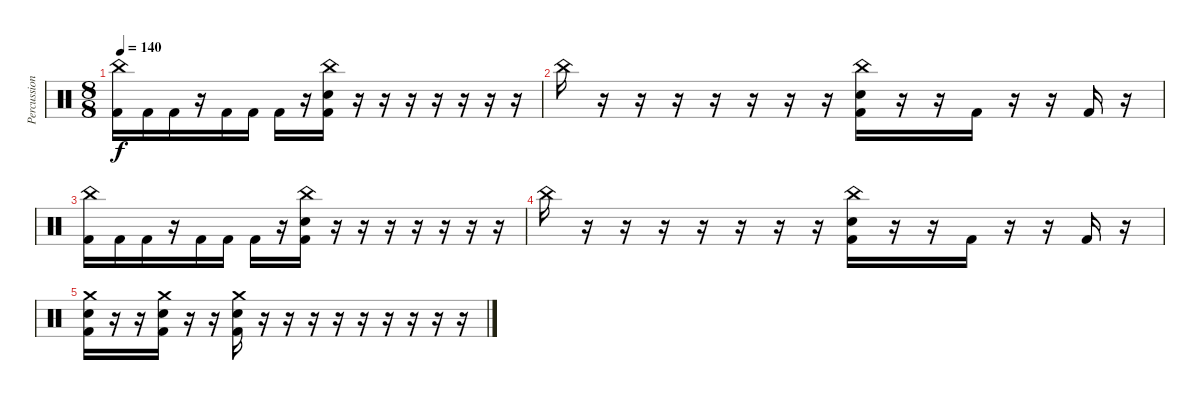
\track ("Percussion" "Percussion") {instrument percussion}
\staff {score}
\articulation defaults
\ts (8 8)
\tempo 140
\clef neutral
\ks c
("China (hit)" "Kick (hit) 2").16{dy f} "Kick (hit) 2".16 "Kick (hit) 2".16 r.16 "Kick (hit) 2".16 "Kick (hit) 2".16 "Kick (hit) 2".16 r.16 ("China (hit)" "Snare (hit) 2" "Kick (hit) 2").16 r.16 r.16 r.16 r.16 r.16 r.16 r.16 |
"China (hit)".16 r.16 r.16 r.16 r.16 r.16 r.16 r.16 ("China (hit)" "Snare (hit) 2" "Kick (hit) 2").16 r.16 r.16 "Kick (hit) 2".16 r.16 r.16 "Kick (hit) 2".16 r.16 |
("China (hit)" "Kick (hit) 2").16 "Kick (hit) 2".16 "Kick (hit) 2".16 r.16 "Kick (hit) 2".16 "Kick (hit) 2".16 "Kick (hit) 2".16 r.16 ("China (hit)" "Snare (hit) 2" "Kick (hit) 2").16 r.16 r.16 r.16 r.16 r.16 r.16 r.16 |
"China (hit)".16 r.16 r.16 r.16 r.16 r.16 r.16 r.16 ("China (hit)" "Snare (hit) 2" "Kick (hit) 2").16 r.16 r.16 "Kick (hit) 2".16 r.16 r.16 "Kick (hit) 2".16 r.16 |
("Crash medium (hit)" "Snare (hit) 2" "Kick (hit) 2").16 r.16 r.16 ("Crash medium (hit)" "Snare (hit) 2" "Kick (hit) 2").16 r.16 r.16 ("Crash medium (hit)" "Snare (hit) 2" "Kick (hit) 2").16 r.16{volume 0} r.16 r.16 r.16 r.16 r.16 r.16 r.16 r.16
